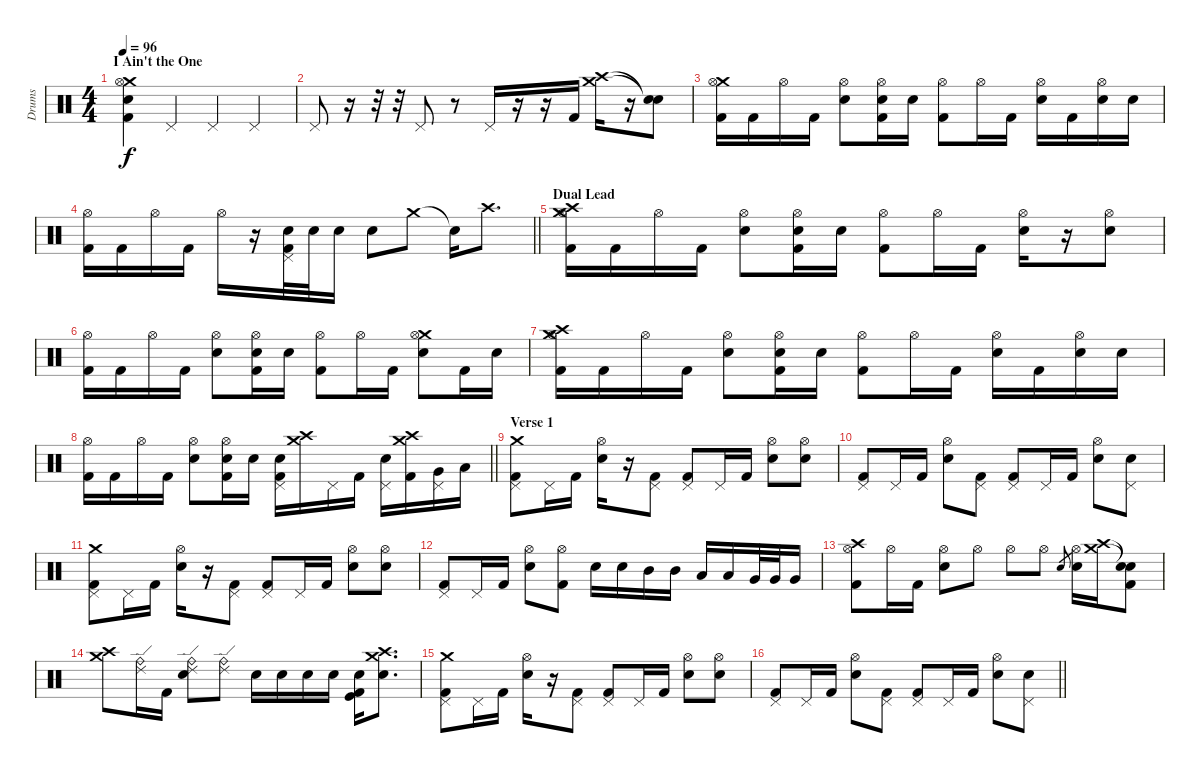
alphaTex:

\track ("Drums" "Drums") {instrument percussion}
\staff {score}
\articulation defaults
\ts (4 4)
\section ("" "I Ain't the One")
\tempo 96
\clef neutral
\ks c
("Crash medium (hit)" "Electric Snare (hit)" "Hi-Hat (open)" "Kick (hit) 2").4{dy f} "Pedal Hi-Hat (hit)".4 "Pedal Hi-Hat (hit)".4 "Pedal Hi-Hat (hit)".4 |
"Pedal Hi-Hat (hit)".8 r.16 r.32 r.32 "Pedal Hi-Hat (hit)".8 r.8 "Pedal Hi-Hat (hit)".16 r.16 r.16 "Kick (hit) 2".16 ("Crash medium (hit)" "Crash high (hit)").16 r.16 ("Snare (hit)"{t} "Snare (hit)"{t}).8 |
("Crash medium (hit)" "Hi-Hat (open)" "Kick (hit) 2").16 "Kick (hit) 2".16 "Hi-Hat (open)".16 "Kick (hit) 2".16 ("Hi-Hat (open)" "Electric Snare (hit)").8 ("Hi-Hat (open)" "Electric Snare (hit)" "Kick (hit) 2").16 "Electric Snare (hit)".16 ("Hi-Hat (open)" "Kick (hit) 2").8 "Hi-Hat (open)".16 "Kick (hit) 2".16 ("Hi-Hat (open)" "Electric Snare (hit)").16 "Kick (hit) 2".16 ("Hi-Hat (open)" "Electric Snare (hit)").16 "Electric Snare (hit)".16 |
\barLineRight lightlight
("Hi-Hat (open)" "Kick (hit) 2").16 "Kick (hit) 2".16 "Hi-Hat (open)".16 "Kick (hit) 2".16 "Hi-Hat (open)".16 r.16 ("Pedal Hi-Hat (hit)" "Snare (hit) 2" "Kick (hit) 2").32 "Snare (hit) 2".32 "Electric Snare (hit)".16 "Electric Snare (hit)".8 "Crash medium (hit)".8 "Snare (hit)"{t}.16 "Crash high (hit)".8{d} |
\section ("" "Dual Lead")
("Crash medium (hit)" "Crash high (hit)" "Hi-Hat (open)" "Kick (hit) 2").16 "Kick (hit) 2".16 "Hi-Hat (open)".16 "Kick (hit) 2".16 ("Hi-Hat (open)" "Electric Snare (hit)").8 ("Hi-Hat (open)" "Electric Snare (hit)" "Kick (hit) 2").16 "Electric Snare (hit)".16 ("Hi-Hat (open)" "Kick (hit) 2").8 "Hi-Hat (open)".16 "Kick (hit) 2".16 ("Hi-Hat (open)" "Electric Snare (hit)").16 r.16 ("Hi-Hat (open)" "Electric Snare (hit)").8 |
("Hi-Hat (open)" "Kick (hit) 2").16 "Kick (hit) 2".16 "Hi-Hat (open)".16 "Kick (hit) 2".16 ("Hi-Hat (open)" "Electric Snare (hit)").8 ("Hi-Hat (open)" "Electric Snare (hit)" "Kick (hit) 2").16 "Electric Snare (hit)".16 ("Hi-Hat (open)" "Kick (hit) 2").8 "Hi-Hat (open)".16 "Kick (hit) 2".16 ("Crash medium (hit)" "Hi-Hat (open)" "Electric Snare (hit)").8 "Kick (hit) 2".16 "Electric Snare (hit)".16 |
("Crash high (hit)" "Crash medium (hit)" "Hi-Hat (open)" "Kick (hit) 2").16 "Kick (hit) 2".16 "Hi-Hat (open)".16 "Kick (hit) 2".16 ("Hi-Hat (open)" "Electric Snare (hit)").8 ("Hi-Hat (open)" "Electric Snare (hit)" "Kick (hit) 2").16 "Electric Snare (hit)".16 ("Hi-Hat (open)" "Kick (hit) 2").8 "Hi-Hat (open)".16 "Kick (hit) 2".16 ("Hi-Hat (open)" "Electric Snare (hit)").16 "Kick (hit) 2".16 ("Hi-Hat (open)" "Electric Snare (hit)").16 "Electric Snare (hit)".16 |
\barLineRight lightlight
("Hi-Hat (open)" "Kick (hit) 2").16 "Kick (hit) 2".16 "Hi-Hat (open)".16 "Kick (hit) 2".16 ("Hi-Hat (open)" "Electric Snare (hit)").8 ("Hi-Hat (open)" "Electric Snare (hit)" "Kick (hit) 2").16 "Electric Snare (hit)".16 ("Pedal Hi-Hat (hit)" "Electric Snare (hit)" "Kick (hit) 2").16 ("Crash medium (hit)" "Crash high (hit)").16 "Pedal Hi-Hat (hit)".16 "Kick (hit) 2".16 ("Pedal Hi-Hat (hit)" "Electric Snare (hit)").16 ("Crash high (hit)" "Crash medium (hit)" "Kick (hit) 2").16 ("Pedal Hi-Hat (hit)" "Very Low Tom (hit)").16 "Low Floor Tom (hit)".16 |
\section ("" "Verse 1")
("Crash medium (hit)" "Pedal Hi-Hat (hit)" "Kick (hit) 2").8 "Pedal Hi-Hat (hit)".16 "Kick (hit) 2".16 ("Electric Snare (hit)" "Hi-Hat (open)").16 r.16 ("Pedal Hi-Hat (hit)" "Kick (hit) 2").8 ("Pedal Hi-Hat (hit)" "Kick (hit) 2").8 "Pedal Hi-Hat (hit)".16 "Kick (hit) 2".16 ("Electric Snare (hit)" "Hi-Hat (open)").8 ("Electric Snare (hit)" "Hi-Hat (open)").8 |
("Pedal Hi-Hat (hit)" "Kick (hit) 2").8 "Pedal Hi-Hat (hit)".16 "Kick (hit) 2".16 ("Electric Snare (hit)" "Hi-Hat (open)").8 ("Pedal Hi-Hat (hit)" "Kick (hit) 2").8 ("Pedal Hi-Hat (hit)" "Kick (hit) 2").8 "Pedal Hi-Hat (hit)".16 "Kick (hit) 2".16 ("Electric Snare (hit)" "Hi-Hat (open)").8 ("Electric Snare (hit)" "Pedal Hi-Hat (hit)").8 |
("Crash medium (hit)" "Pedal Hi-Hat (hit)" "Kick (hit) 2").8 "Pedal Hi-Hat (hit)".16 "Kick (hit) 2".16 ("Electric Snare (hit)" "Hi-Hat (open)").16 r.16 ("Pedal Hi-Hat (hit)" "Kick (hit) 2").8 ("Pedal Hi-Hat (hit)" "Kick (hit) 2").8 "Pedal Hi-Hat (hit)".16 "Kick (hit) 2".16 ("Electric Snare (hit)" "Hi-Hat (open)").8 ("Electric Snare (hit)" "Hi-Hat (open)").8 |
("Pedal Hi-Hat (hit)" "Kick (hit) 2").8 "Pedal Hi-Hat (hit)".16 "Kick (hit) 2".16 ("Electric Snare (hit)" "Hi-Hat (open)").8 ("Hi-Hat (open)" "Kick (hit) 2").8 "Electric Snare (hit)".16 "Electric Snare (hit)".16 "Mid Tom (hit)".16 "Mid Tom (hit)".16 "Low Tom (hit)".16 "Low Tom (hit)".16 "Very Low Tom (hit)".32 "Very Low Tom (hit)".32 "Very Low Tom (hit)".16 |
("Crash high (hit)" "Hi-Hat (open)" "Kick (hit) 2").8 "Hi-Hat (open)".16 "Kick (hit) 2".16 ("Electric Snare (hit)" "Hi-Hat (open)").8 "Hi-Hat (open)".8 "Hi-Hat (open)".8 "Hi-Hat (open)".8 "Electric Snare (hit)".8{gr} ("Electric Snare (hit)" "Hi-Hat (open)").16 ("Crash high (hit)" "Crash medium (hit)").16 ("Snare (hit)"{t} "Snare (hit)"{t} "Kick (hit) 2").8 |
("Crash high (hit)" "Crash medium (hit)").8 ("Ride (bell)" "Ride (edge) 2").16 "Kick (hit) 2".16 ("Ride (bell)" "Ride (edge) 2" "Electric Snare (hit)").8 ("Ride (bell)" "Ride (edge) 2").8 "Electric Snare (hit)".16 "Electric Snare (hit)".16 "Electric Snare (hit)".16 "Electric Snare (hit)".16 ("Electric Snare (hit)" "Kick (hit)" "Kick (hit) 2").16 ("Crash medium (hit)" "Crash high (hit)" "Electric Snare (hit)").8{d} |
("Crash medium (hit)" "Pedal Hi-Hat (hit)" "Kick (hit) 2").8 "Pedal Hi-Hat (hit)".16 "Kick (hit) 2".16 ("Electric Snare (hit)" "Hi-Hat (open)").16 r.16 ("Pedal Hi-Hat (hit)" "Kick (hit) 2").8 ("Pedal Hi-Hat (hit)" "Kick (hit) 2").8 "Pedal Hi-Hat (hit)".16 "Kick (hit) 2".16 ("Electric Snare (hit)" "Hi-Hat (open)").8 ("Electric Snare (hit)" "Hi-Hat (open)").8 |
\barLineRight lightlight
("Pedal Hi-Hat (hit)" "Kick (hit) 2").8 "Pedal Hi-Hat (hit)".16 "Kick (hit) 2".16 ("Electric Snare (hit)" "Hi-Hat (open)").8 ("Pedal Hi-Hat (hit)" "Kick (hit) 2").8 ("Pedal Hi-Hat (hit)" "Kick (hit) 2").8 "Pedal Hi-Hat (hit)".16 "Kick (hit) 2".16 ("Electric Snare (hit)" "Hi-Hat (open)").8 ("Electric Snare (hit)" "Pedal Hi-Hat (hit)").8
